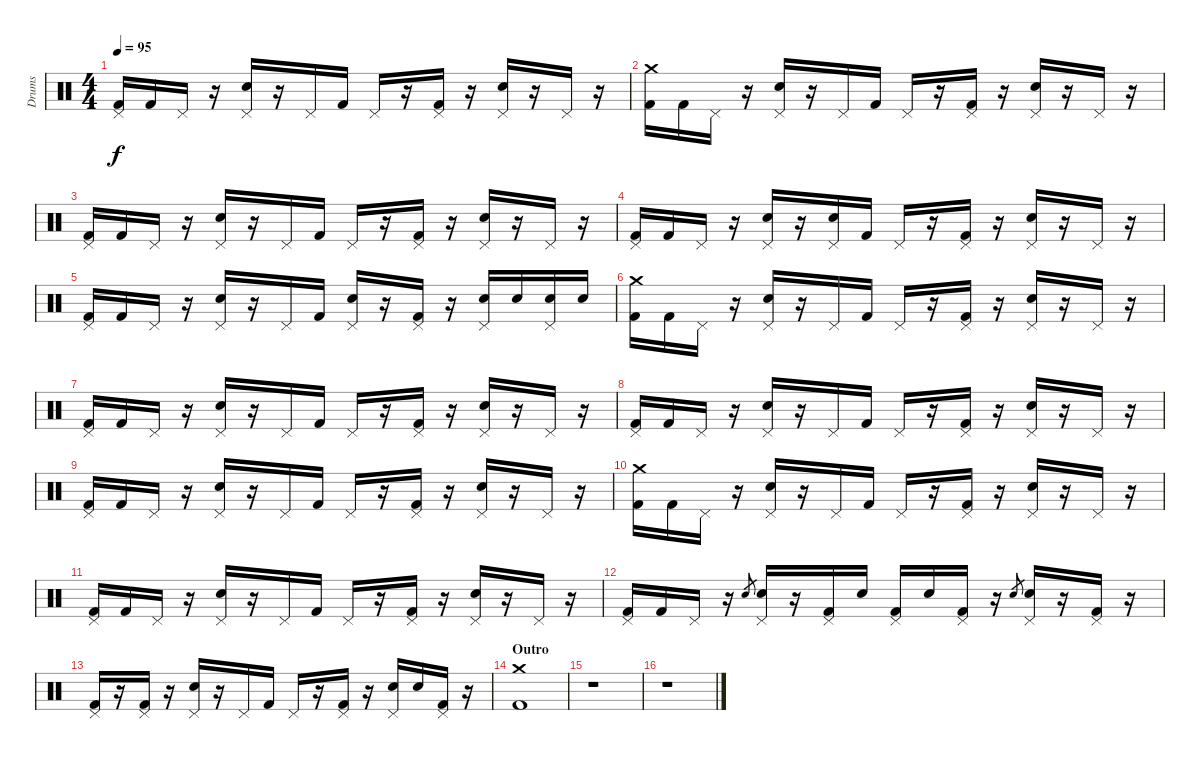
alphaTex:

\track ("Drums" "Drums") {instrument percussion}
\staff {score}
\articulation defaults
\ts (4 4)
\tempo 95
\clef neutral
\ks c
("Pedal Hi-Hat (hit)" "Kick (hit) 2").16{dy f} "Kick (hit) 2".16 "Pedal Hi-Hat (hit)".16 r.16 ("Pedal Hi-Hat (hit)" "Electric Snare (hit)").16 r.16 "Pedal Hi-Hat (hit)".16 "Kick (hit) 2".16 "Pedal Hi-Hat (hit)".16 r.16 ("Pedal Hi-Hat (hit)" "Kick (hit) 2").16 r.16 ("Pedal Hi-Hat (hit)" "Electric Snare (hit)").16 r.16 "Pedal Hi-Hat (hit)".16 r.16 |
("Crash medium (hit)" "Kick (hit) 2").16 "Kick (hit) 2".16 "Pedal Hi-Hat (hit)".16 r.16 ("Pedal Hi-Hat (hit)" "Electric Snare (hit)").16 r.16 "Pedal Hi-Hat (hit)".16 "Kick (hit) 2".16 "Pedal Hi-Hat (hit)".16 r.16 ("Pedal Hi-Hat (hit)" "Kick (hit) 2").16 r.16 ("Pedal Hi-Hat (hit)" "Electric Snare (hit)").16 r.16 "Pedal Hi-Hat (hit)".16 r.16 |
("Pedal Hi-Hat (hit)" "Kick (hit) 2").16 "Kick (hit) 2".16 "Pedal Hi-Hat (hit)".16 r.16 ("Pedal Hi-Hat (hit)" "Electric Snare (hit)").16 r.16 "Pedal Hi-Hat (hit)".16 "Kick (hit) 2".16 "Pedal Hi-Hat (hit)".16 r.16 ("Pedal Hi-Hat (hit)" "Kick (hit) 2").16 r.16 ("Pedal Hi-Hat (hit)" "Electric Snare (hit)").16 r.16 "Pedal Hi-Hat (hit)".16 r.16 |
("Pedal Hi-Hat (hit)" "Kick (hit) 2").16 "Kick (hit) 2".16 "Pedal Hi-Hat (hit)".16 r.16 ("Pedal Hi-Hat (hit)" "Electric Snare (hit)").16 r.16 ("Pedal Hi-Hat (hit)" "Electric Snare (hit)").16 "Kick (hit) 2".16 "Pedal Hi-Hat (hit)".16 r.16 ("Pedal Hi-Hat (hit)" "Kick (hit) 2").16 r.16 ("Pedal Hi-Hat (hit)" "Electric Snare (hit)").16 r.16 "Pedal Hi-Hat (hit)".16 r.16 |
("Pedal Hi-Hat (hit)" "Kick (hit) 2").16 "Kick (hit) 2".16 "Pedal Hi-Hat (hit)".16 r.16 ("Pedal Hi-Hat (hit)" "Electric Snare (hit)").16 r.16 "Pedal Hi-Hat (hit)".16 "Kick (hit) 2".16 ("Pedal Hi-Hat (hit)" "Electric Snare (hit)").16 r.16 ("Pedal Hi-Hat (hit)" "Kick (hit) 2").16 r.16 ("Pedal Hi-Hat (hit)" "Electric Snare (hit)").16 "Electric Snare (hit)".16 ("Pedal Hi-Hat (hit)" "Electric Snare (hit)").16 "Electric Snare (hit)".16 |
("Crash medium (hit)" "Kick (hit) 2").16 "Kick (hit) 2".16 "Pedal Hi-Hat (hit)".16 r.16 ("Pedal Hi-Hat (hit)" "Electric Snare (hit)").16 r.16 "Pedal Hi-Hat (hit)".16 "Kick (hit) 2".16 "Pedal Hi-Hat (hit)".16 r.16 ("Pedal Hi-Hat (hit)" "Kick (hit) 2").16 r.16 ("Pedal Hi-Hat (hit)" "Electric Snare (hit)").16 r.16 "Pedal Hi-Hat (hit)".16 r.16 |
("Pedal Hi-Hat (hit)" "Kick (hit) 2").16 "Kick (hit) 2".16 "Pedal Hi-Hat (hit)".16 r.16 ("Pedal Hi-Hat (hit)" "Electric Snare (hit)").16 r.16 "Pedal Hi-Hat (hit)".16 "Kick (hit) 2".16 "Pedal Hi-Hat (hit)".16 r.16 ("Pedal Hi-Hat (hit)" "Kick (hit) 2").16 r.16 ("Pedal Hi-Hat (hit)" "Electric Snare (hit)").16 r.16 "Pedal Hi-Hat (hit)".16 r.16 |
("Pedal Hi-Hat (hit)" "Kick (hit) 2").16 "Kick (hit) 2".16 "Pedal Hi-Hat (hit)".16 r.16 ("Pedal Hi-Hat (hit)" "Electric Snare (hit)").16 r.16 "Pedal Hi-Hat (hit)".16 "Kick (hit) 2".16 "Pedal Hi-Hat (hit)".16 r.16 ("Pedal Hi-Hat (hit)" "Kick (hit) 2").16 r.16 ("Pedal Hi-Hat (hit)" "Electric Snare (hit)").16 r.16 "Pedal Hi-Hat (hit)".16 r.16 |
("Pedal Hi-Hat (hit)" "Kick (hit) 2").16 "Kick (hit) 2".16 "Pedal Hi-Hat (hit)".16 r.16 ("Pedal Hi-Hat (hit)" "Electric Snare (hit)").16 r.16 "Pedal Hi-Hat (hit)".16 "Kick (hit) 2".16 "Pedal Hi-Hat (hit)".16 r.16 ("Pedal Hi-Hat (hit)" "Kick (hit) 2").16 r.16 ("Pedal Hi-Hat (hit)" "Electric Snare (hit)").16 r.16 "Pedal Hi-Hat (hit)".16 r.16 |
("Crash medium (hit)" "Kick (hit) 2").16 "Kick (hit) 2".16 "Pedal Hi-Hat (hit)".16 r.16 ("Pedal Hi-Hat (hit)" "Electric Snare (hit)").16 r.16 "Pedal Hi-Hat (hit)".16 "Kick (hit) 2".16 "Pedal Hi-Hat (hit)".16 r.16 ("Pedal Hi-Hat (hit)" "Kick (hit) 2").16 r.16 ("Pedal Hi-Hat (hit)" "Electric Snare (hit)").16 r.16 "Pedal Hi-Hat (hit)".16 r.16 |
("Pedal Hi-Hat (hit)" "Kick (hit) 2").16 "Kick (hit) 2".16 "Pedal Hi-Hat (hit)".16 r.16 ("Pedal Hi-Hat (hit)" "Electric Snare (hit)").16 r.16 "Pedal Hi-Hat (hit)".16 "Kick (hit) 2".16 "Pedal Hi-Hat (hit)".16 r.16 ("Pedal Hi-Hat (hit)" "Kick (hit) 2").16 r.16 ("Pedal Hi-Hat (hit)" "Electric Snare (hit)").16 r.16 "Pedal Hi-Hat (hit)".16 r.16 |
("Pedal Hi-Hat (hit)" "Kick (hit) 2").16 "Kick (hit) 2".16 "Pedal Hi-Hat (hit)".16 r.16 "Electric Snare (hit)".8{gr} ("Pedal Hi-Hat (hit)" "Electric Snare (hit)").16 r.16 ("Pedal Hi-Hat (hit)" "Kick (hit) 2").16 "Electric Snare (hit)".16 ("Pedal Hi-Hat (hit)" "Kick (hit) 2").16 "Electric Snare (hit)".16 ("Pedal Hi-Hat (hit)" "Kick (hit) 2").16 r.16 "Electric Snare (hit)".8{gr} ("Pedal Hi-Hat (hit)" "Electric Snare (hit)").16 r.16 ("Pedal Hi-Hat (hit)" "Kick (hit) 2").16 r.16 |
("Pedal Hi-Hat (hit)" "Kick (hit) 2").16 r.16 ("Pedal Hi-Hat (hit)" "Kick (hit) 2").16 r.16 ("Pedal Hi-Hat (hit)" "Electric Snare (hit)").16 r.16 "Pedal Hi-Hat (hit)".16 "Kick (hit) 2".16 "Pedal Hi-Hat (hit)".16 r.16 ("Pedal Hi-Hat (hit)" "Kick (hit) 2").16 r.16 ("Pedal Hi-Hat (hit)" "Electric Snare (hit)").16 "Electric Snare (hit)".16 ("Pedal Hi-Hat (hit)" "Kick (hit) 2").16 r.16 |
\section ("" "Outro")
("Kick (hit) 2" "Crash medium (hit)").1 |
r.1 |
r.1
